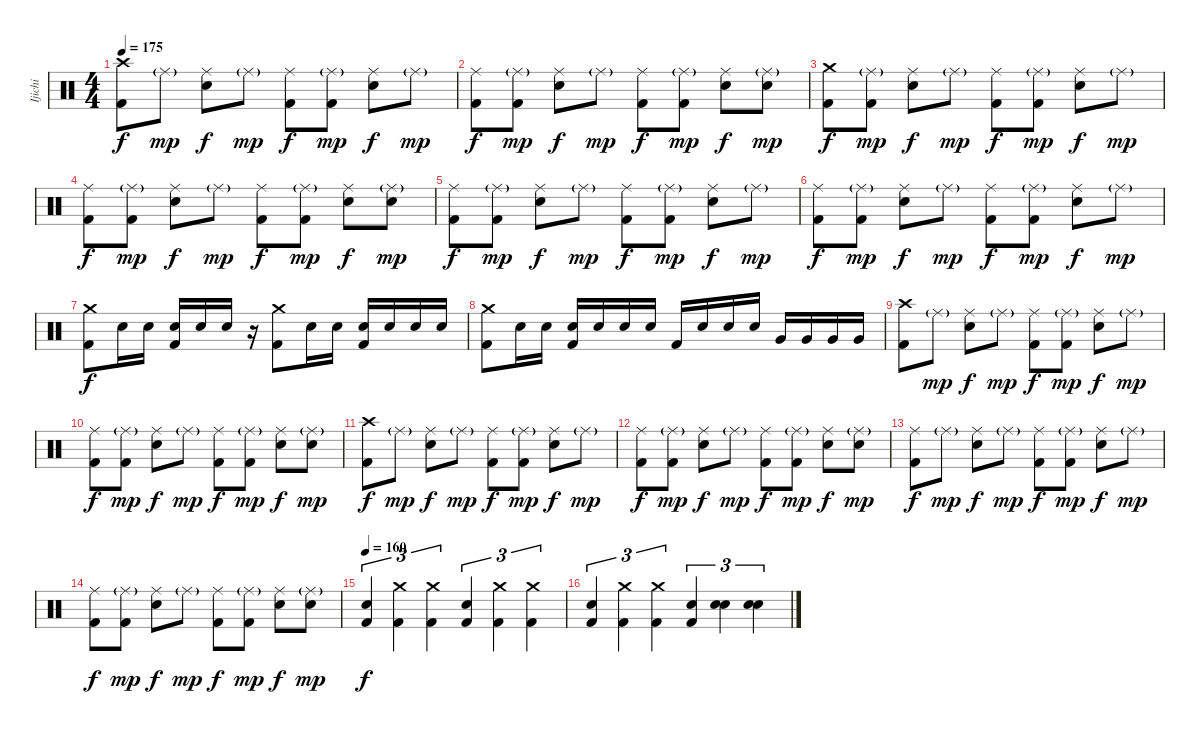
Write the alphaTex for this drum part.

\track ("Ijichi" "Ijichi") {instrument percussion}
\staff {score}
\articulation defaults
\ts (4 4)
\tempo 175
\clef neutral
\ks c
("Crash high (hit)" "Kick (hit) 2").8{dy f} "Ride (middle)"{g}.8{dy mp} ("Ride (middle)" "Electric Snare (hit)").8{dy f} "Ride (middle)"{g}.8{dy mp} ("Ride (middle)" "Kick (hit) 2").8{dy f} ("Ride (middle)"{g} "Kick (hit) 2").8{dy mp} ("Ride (middle)" "Electric Snare (hit)").8{dy f} "Ride (middle)"{g}.8{dy mp} |
("Ride (middle)" "Kick (hit) 2").8{dy f} ("Ride (middle)"{g} "Kick (hit) 2").8{dy mp} ("Ride (middle)" "Electric Snare (hit)").8{dy f} "Ride (middle)"{g}.8{dy mp} ("Ride (middle)" "Kick (hit) 2").8{dy f} ("Ride (middle)"{g} "Kick (hit) 2").8{dy mp} ("Ride (middle)" "Electric Snare (hit)").8{dy f} ("Ride (middle)"{g} "Electric Snare (hit)").8{dy mp} |
("Crash medium (hit)" "Kick (hit) 2").8{dy f} ("Ride (middle)"{g} "Kick (hit) 2").8{dy mp} ("Ride (middle)" "Electric Snare (hit)").8{dy f} "Ride (middle)"{g}.8{dy mp} ("Ride (middle)" "Kick (hit) 2").8{dy f} ("Ride (middle)"{g} "Kick (hit) 2").8{dy mp} ("Ride (middle)" "Electric Snare (hit)").8{dy f} "Ride (middle)"{g}.8{dy mp} |
("Ride (middle)" "Kick (hit) 2").8{dy f} ("Ride (middle)"{g} "Kick (hit) 2").8{dy mp} ("Ride (middle)" "Electric Snare (hit)").8{dy f} "Ride (middle)"{g}.8{dy mp} ("Ride (middle)" "Kick (hit) 2").8{dy f} ("Ride (middle)"{g} "Kick (hit) 2").8{dy mp} ("Ride (middle)" "Electric Snare (hit)").8{dy f} ("Ride (middle)"{g} "Electric Snare (hit)").8{dy mp} |
("Ride (middle)" "Kick (hit) 2").8{dy f} ("Ride (middle)"{g} "Kick (hit) 2").8{dy mp} ("Ride (middle)" "Electric Snare (hit)").8{dy f} "Ride (middle)"{g}.8{dy mp} ("Ride (middle)" "Kick (hit) 2").8{dy f} ("Ride (middle)"{g} "Kick (hit) 2").8{dy mp} ("Ride (middle)" "Electric Snare (hit)").8{dy f} "Ride (middle)"{g}.8{dy mp} |
("Ride (middle)" "Kick (hit) 2").8{dy f} ("Ride (middle)"{g} "Kick (hit) 2").8{dy mp} ("Ride (middle)" "Electric Snare (hit)").8{dy f} "Ride (middle)"{g}.8{dy mp} ("Ride (middle)" "Kick (hit) 2").8{dy f} ("Ride (middle)"{g} "Kick (hit) 2").8{dy mp} ("Ride (middle)" "Electric Snare (hit)").8{dy f} "Ride (middle)"{g}.8{dy mp} |
("Crash medium (hit)" "Kick (hit) 2").8{dy f} "Electric Snare (hit)".16 "Electric Snare (hit)".16 ("Electric Snare (hit)" "Kick (hit) 2").16 "Electric Snare (hit)".16 "Electric Snare (hit)".16 r.16 ("Crash medium (hit)" "Kick (hit) 2").8 "Electric Snare (hit)".16 "Electric Snare (hit)".16 ("Electric Snare (hit)" "Kick (hit) 2").16 "Electric Snare (hit)".16 "Electric Snare (hit)".16 "Electric Snare (hit)".16 |
("Crash medium (hit)" "Kick (hit) 2").8 "Electric Snare (hit)".16 "Electric Snare (hit)".16 ("Electric Snare (hit)" "Kick (hit) 2").16 "Electric Snare (hit)".16 "Electric Snare (hit)".16 "Electric Snare (hit)".16 "Kick (hit) 2".16 "Electric Snare (hit)".16 "Electric Snare (hit)".16 "Electric Snare (hit)".16 "Very Low Tom (hit)".16 "Very Low Tom (hit)".16 "Very Low Tom (hit)".16 "Very Low Tom (hit)".16 |
("Crash high (hit)" "Kick (hit) 2").8 "Ride (middle)"{g}.8{dy mp} ("Ride (middle)" "Electric Snare (hit)").8{dy f} "Ride (middle)"{g}.8{dy mp} ("Ride (middle)" "Kick (hit) 2").8{dy f} ("Ride (middle)"{g} "Kick (hit) 2").8{dy mp} ("Ride (middle)" "Electric Snare (hit)").8{dy f} "Ride (middle)"{g}.8{dy mp} |
("Ride (middle)" "Kick (hit) 2").8{dy f} ("Ride (middle)"{g} "Kick (hit) 2").8{dy mp} ("Ride (middle)" "Electric Snare (hit)").8{dy f} "Ride (middle)"{g}.8{dy mp} ("Ride (middle)" "Kick (hit) 2").8{dy f} ("Ride (middle)"{g} "Kick (hit) 2").8{dy mp} ("Ride (middle)" "Electric Snare (hit)").8{dy f} ("Ride (middle)"{g} "Electric Snare (hit)").8{dy mp} |
("Crash high (hit)" "Kick (hit) 2").8{dy f} "Ride (middle)"{g}.8{dy mp} ("Ride (middle)" "Electric Snare (hit)").8{dy f} "Ride (middle)"{g}.8{dy mp} ("Ride (middle)" "Kick (hit) 2").8{dy f} ("Ride (middle)"{g} "Kick (hit) 2").8{dy mp} ("Ride (middle)" "Electric Snare (hit)").8{dy f} "Ride (middle)"{g}.8{dy mp} |
("Ride (middle)" "Kick (hit) 2").8{dy f} ("Ride (middle)"{g} "Kick (hit) 2").8{dy mp} ("Ride (middle)" "Electric Snare (hit)").8{dy f} "Ride (middle)"{g}.8{dy mp} ("Ride (middle)" "Kick (hit) 2").8{dy f} ("Ride (middle)"{g} "Kick (hit) 2").8{dy mp} ("Ride (middle)" "Electric Snare (hit)").8{dy f} ("Ride (middle)"{g} "Electric Snare (hit)").8{dy mp} |
("Ride (middle)" "Kick (hit) 2").8{dy f} "Ride (middle)"{g}.8{dy mp} ("Ride (middle)" "Electric Snare (hit)").8{dy f} "Ride (middle)"{g}.8{dy mp} ("Ride (middle)" "Kick (hit) 2").8{dy f} ("Ride (middle)"{g} "Kick (hit) 2").8{dy mp} ("Ride (middle)" "Electric Snare (hit)").8{dy f} "Ride (middle)"{g}.8{dy mp} |
("Ride (middle)" "Kick (hit) 2").8{dy f} ("Ride (middle)"{g} "Kick (hit) 2").8{dy mp} ("Ride (middle)" "Electric Snare (hit)").8{dy f} "Ride (middle)"{g}.8{dy mp} ("Ride (middle)" "Kick (hit) 2").8{dy f} ("Ride (middle)"{g} "Kick (hit) 2").8{dy mp} ("Ride (middle)" "Electric Snare (hit)").8{dy f} ("Ride (middle)"{g} "Electric Snare (hit)").8{dy mp} |
\tempo 160
("Electric Snare (hit)" "Kick (hit) 2").4{tu (3 2) dy f} ("Crash medium (hit)" "Kick (hit) 2").4{tu (3 2)} ("Crash medium (hit)" "Kick (hit) 2").4{tu (3 2)} ("Electric Snare (hit)" "Kick (hit) 2").4{tu (3 2)} ("Crash medium (hit)" "Kick (hit) 2").4{tu (3 2)} ("Crash medium (hit)" "Kick (hit) 2").4{tu (3 2)} |
("Electric Snare (hit)" "Kick (hit) 2").4{tu (3 2)} ("Crash medium (hit)" "Kick (hit) 2").4{tu (3 2)} ("Crash medium (hit)" "Kick (hit) 2").4{tu (3 2)} ("Electric Snare (hit)" "Kick (hit) 2").4{tu (3 2)} ("Electric Snare (hit)" "Electric Snare (hit)").4{tu (3 2)} ("Electric Snare (hit)" "Electric Snare (hit)").4{tu (3 2)}
